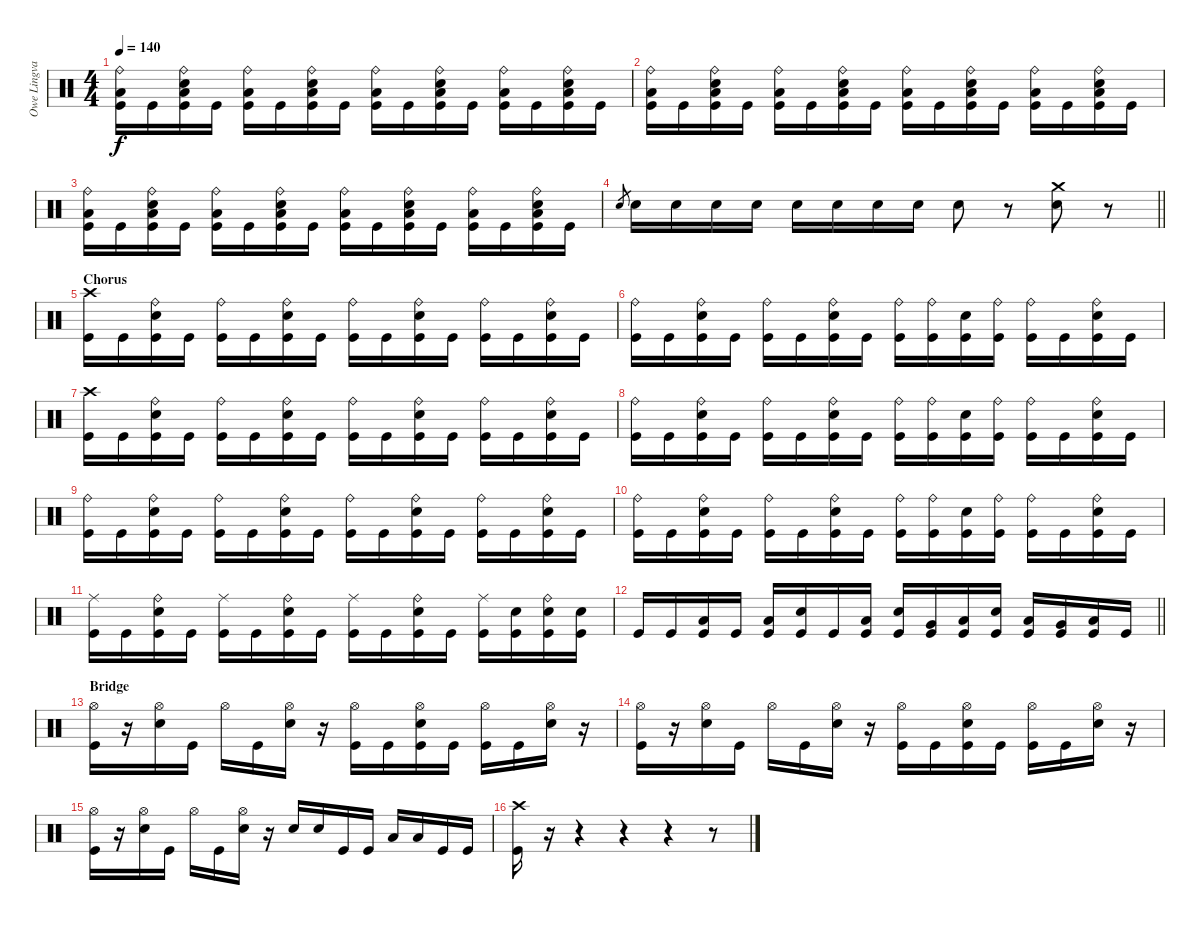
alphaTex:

\track ("Owe Lingvall" "Owe Lingva") {instrument percussion}
\staff {score}
\articulation defaults
\ts (4 4)
\tempo 140
\clef neutral
\ks c
("Kick (hit)" "Low Tom (hit)" "Ride (bell)").16{dy f} "Kick (hit)".16 ("Kick (hit)" "Low Tom (hit)" "Snare (hit) 2" "Ride (bell)").16 "Kick (hit)".16 ("Kick (hit)" "Low Tom (hit)" "Ride (bell)").16 "Kick (hit)".16 ("Kick (hit)" "Low Tom (hit)" "Snare (hit) 2" "Ride (bell)").16 "Kick (hit)".16 ("Kick (hit)" "Low Tom (hit)" "Ride (bell)").16 "Kick (hit)".16 ("Kick (hit)" "Low Tom (hit)" "Snare (hit) 2" "Ride (bell)").16 "Kick (hit)".16 ("Kick (hit)" "Low Tom (hit)" "Ride (bell)").16 "Kick (hit)".16 ("Kick (hit)" "Low Tom (hit)" "Snare (hit) 2" "Ride (bell)").16 "Kick (hit)".16 |
("Kick (hit)" "Low Tom (hit)" "Ride (bell)").16 "Kick (hit)".16 ("Kick (hit)" "Low Tom (hit)" "Snare (hit) 2" "Ride (bell)").16 "Kick (hit)".16 ("Kick (hit)" "Low Tom (hit)" "Ride (bell)").16 "Kick (hit)".16 ("Kick (hit)" "Low Tom (hit)" "Snare (hit) 2" "Ride (bell)").16 "Kick (hit)".16 ("Kick (hit)" "Low Tom (hit)" "Ride (bell)").16 "Kick (hit)".16 ("Kick (hit)" "Low Tom (hit)" "Snare (hit) 2" "Ride (bell)").16 "Kick (hit)".16 ("Kick (hit)" "Low Tom (hit)" "Ride (bell)").16 "Kick (hit)".16 ("Kick (hit)" "Low Tom (hit)" "Snare (hit) 2" "Ride (bell)").16 "Kick (hit)".16 |
("Kick (hit)" "Low Tom (hit)" "Ride (bell)").16 "Kick (hit)".16 ("Kick (hit)" "Low Tom (hit)" "Snare (hit) 2" "Ride (bell)").16 "Kick (hit)".16 ("Kick (hit)" "Low Tom (hit)" "Ride (bell)").16 "Kick (hit)".16 ("Kick (hit)" "Low Tom (hit)" "Snare (hit) 2" "Ride (bell)").16 "Kick (hit)".16 ("Kick (hit)" "Low Tom (hit)" "Ride (bell)").16 "Kick (hit)".16 ("Kick (hit)" "Low Tom (hit)" "Snare (hit) 2" "Ride (bell)").16 "Kick (hit)".16 ("Kick (hit)" "Low Tom (hit)" "Ride (bell)").16 "Kick (hit)".16 ("Kick (hit)" "Low Tom (hit)" "Snare (hit) 2" "Ride (bell)").16 "Kick (hit)".16 |
\barLineRight lightlight "Snare (hit) 2".8{gr} "Snare (hit) 2".16 "Snare (hit) 2".16 "Snare (hit) 2".16 "Snare (hit) 2".16 "Snare (hit) 2".16 "Snare (hit) 2".16 "Snare (hit) 2".16 "Snare (hit) 2".16 "Snare (hit) 2".8
r.8 ("Snare (hit) 2" "Crash medium (hit)").8 r.8 |
\section ("" "Chorus")
("Kick (hit)" "Crash high (hit)").16 "Kick (hit)".16 ("Kick (hit)" "Ride (bell)" "Snare (hit) 2").16 "Kick (hit)".16 ("Kick (hit)" "Ride (bell)").16 "Kick (hit)".16 ("Kick (hit)" "Ride (bell)" "Snare (hit) 2").16 "Kick (hit)".16 ("Kick (hit)" "Ride (bell)").16 "Kick (hit)".16 ("Kick (hit)" "Ride (bell)" "Snare (hit) 2").16 "Kick (hit)".16 ("Kick (hit)" "Ride (bell)").16 "Kick (hit)".16 ("Kick (hit)" "Ride (bell)" "Snare (hit) 2").16 "Kick (hit)".16 |
("Kick (hit)" "Ride (bell)").16 "Kick (hit)".16 ("Kick (hit)" "Ride (bell)" "Snare (hit) 2").16 "Kick (hit)".16 ("Kick (hit)" "Ride (bell)").16 "Kick (hit)".16 ("Kick (hit)" "Ride (bell)" "Snare (hit) 2").16 "Kick (hit)".16 ("Kick (hit)" "Ride (bell)").16 ("Kick (hit)" "Ride (bell)").16 ("Kick (hit)" "Snare (hit) 2").16 ("Kick (hit)" "Ride (bell)").16 ("Kick (hit)" "Ride (bell)").16 "Kick (hit)".16 ("Kick (hit)" "Ride (bell)" "Snare (hit) 2").16 "Kick (hit)".16 |
("Kick (hit)" "Crash high (hit)").16 "Kick (hit)".16 ("Kick (hit)" "Ride (bell)" "Snare (hit) 2").16 "Kick (hit)".16 ("Kick (hit)" "Ride (bell)").16 "Kick (hit)".16 ("Kick (hit)" "Ride (bell)" "Snare (hit) 2").16 "Kick (hit)".16 ("Kick (hit)" "Ride (bell)").16 "Kick (hit)".16 ("Kick (hit)" "Ride (bell)" "Snare (hit) 2").16 "Kick (hit)".16 ("Kick (hit)" "Ride (bell)").16 "Kick (hit)".16 ("Kick (hit)" "Ride (bell)" "Snare (hit) 2").16 "Kick (hit)".16 |
("Kick (hit)" "Ride (bell)").16 "Kick (hit)".16 ("Kick (hit)" "Ride (bell)" "Snare (hit) 2").16 "Kick (hit)".16 ("Kick (hit)" "Ride (bell)").16 "Kick (hit)".16 ("Kick (hit)" "Ride (bell)" "Snare (hit) 2").16 "Kick (hit)".16 ("Kick (hit)" "Ride (bell)").16 ("Kick (hit)" "Ride (bell)").16 ("Kick (hit)" "Snare (hit) 2").16 ("Kick (hit)" "Ride (bell)").16 ("Kick (hit)" "Ride (bell)").16 "Kick (hit)".16 ("Kick (hit)" "Ride (bell)" "Snare (hit) 2").16 "Kick (hit)".16 |
("Kick (hit)" "Ride (bell)").16 "Kick (hit)".16 ("Kick (hit)" "Ride (bell)" "Snare (hit) 2").16 "Kick (hit)".16 ("Kick (hit)" "Ride (bell)").16 "Kick (hit)".16 ("Kick (hit)" "Ride (bell)" "Snare (hit) 2").16 "Kick (hit)".16 ("Kick (hit)" "Ride (bell)").16 "Kick (hit)".16 ("Kick (hit)" "Ride (bell)" "Snare (hit) 2").16 "Kick (hit)".16 ("Kick (hit)" "Ride (bell)").16 "Kick (hit)".16 ("Kick (hit)" "Ride (bell)" "Snare (hit) 2").16 "Kick (hit)".16 |
("Kick (hit)" "Ride (bell)").16 "Kick (hit)".16 ("Kick (hit)" "Ride (bell)" "Snare (hit) 2").16 "Kick (hit)".16 ("Kick (hit)" "Ride (bell)").16 "Kick (hit)".16 ("Kick (hit)" "Ride (bell)" "Snare (hit) 2").16 "Kick (hit)".16 ("Kick (hit)" "Ride (bell)").16 ("Kick (hit)" "Ride (bell)").16 ("Kick (hit)" "Snare (hit) 2").16 ("Kick (hit)" "Ride (bell)").16 ("Kick (hit)" "Ride (bell)").16 "Kick (hit)".16 ("Kick (hit)" "Ride (bell)" "Snare (hit) 2").16 "Kick (hit)".16 |
("Kick (hit)" "Ride (middle)").16 "Kick (hit)".16 ("Kick (hit)" "Ride (bell)" "Snare (hit) 2").16 "Kick (hit)".16 ("Kick (hit)" "Ride (middle)").16 "Kick (hit)".16 ("Kick (hit)" "Ride (bell)" "Snare (hit) 2").16 "Kick (hit)".16 ("Kick (hit)" "Ride (middle)").16 "Kick (hit)".16 ("Kick (hit)" "Ride (bell)" "Snare (hit) 2").16 "Kick (hit)".16 ("Kick (hit)" "Ride (middle)").16 ("Kick (hit)" "Snare (hit) 2").16 ("Kick (hit)" "Ride (bell)" "Snare (hit) 2").16 ("Kick (hit)" "Snare (hit) 2").16 |
\barLineRight lightlight "Kick (hit)".16 "Kick (hit)".16
("Kick (hit)" "Low Tom (hit)").16 "Kick (hit)".16 ("Kick (hit)" "Low Floor Tom (hit)").16 ("Kick (hit)" "Snare (hit) 2").16 "Kick (hit)".16 ("Kick (hit)" "Low Floor Tom (hit)").16 ("Kick (hit)" "Snare (hit) 2").16 ("Kick (hit)" "Very Low Tom (hit)").16 ("Kick (hit)" "Low Floor Tom (hit)").16 ("Kick (hit)" "Snare (hit) 2").16 ("Kick (hit)" "Low Tom (hit)").16 ("Kick (hit)" "Very Low Tom (hit)").16 ("Kick (hit)" "Low Tom (hit)").16 "Kick (hit)".16 |
\section ("" "Bridge")
("Hi-Hat (open)" "Kick (hit)").16 r.16 ("Hi-Hat (open)" "Snare (hit) 2").16 "Kick (hit)".16 "Hi-Hat (open)".16 "Kick (hit)".16 ("Hi-Hat (open)" "Snare (hit) 2").16 r.16 ("Hi-Hat (open)" "Kick (hit)").16 "Kick (hit)".16 ("Hi-Hat (open)" "Snare (hit) 2" "Kick (hit)").16 "Kick (hit)".16 ("Kick (hit)" "Hi-Hat (open)").16 "Kick (hit)".16 ("Snare (hit) 2" "Hi-Hat (open)").16 r.16 |
("Hi-Hat (open)" "Kick (hit)").16 r.16 ("Hi-Hat (open)" "Snare (hit) 2").16 "Kick (hit)".16 "Hi-Hat (open)".16 "Kick (hit)".16 ("Hi-Hat (open)" "Snare (hit) 2").16 r.16 ("Hi-Hat (open)" "Kick (hit)").16 "Kick (hit)".16 ("Hi-Hat (open)" "Snare (hit) 2" "Kick (hit)").16 "Kick (hit)".16 ("Kick (hit)" "Hi-Hat (open)").16 "Kick (hit)".16 ("Snare (hit) 2" "Hi-Hat (open)").16 r.16 |
("Hi-Hat (open)" "Kick (hit)").16 r.16 ("Hi-Hat (open)" "Snare (hit) 2").16 "Kick (hit)".16 "Hi-Hat (open)".16 "Kick (hit)".16 ("Hi-Hat (open)" "Snare (hit) 2").16 r.16 "Snare (hit) 2".16 "Snare (hit) 2".16 "Kick (hit)".16 "Kick (hit)".16 "Low Tom (hit)".16 "Low Tom (hit)".16 "Kick (hit)".16 "Kick (hit)".16 |
("Crash high (hit)" "Kick (hit)").16 r.16 r.4 r.4 r.4 r.8
